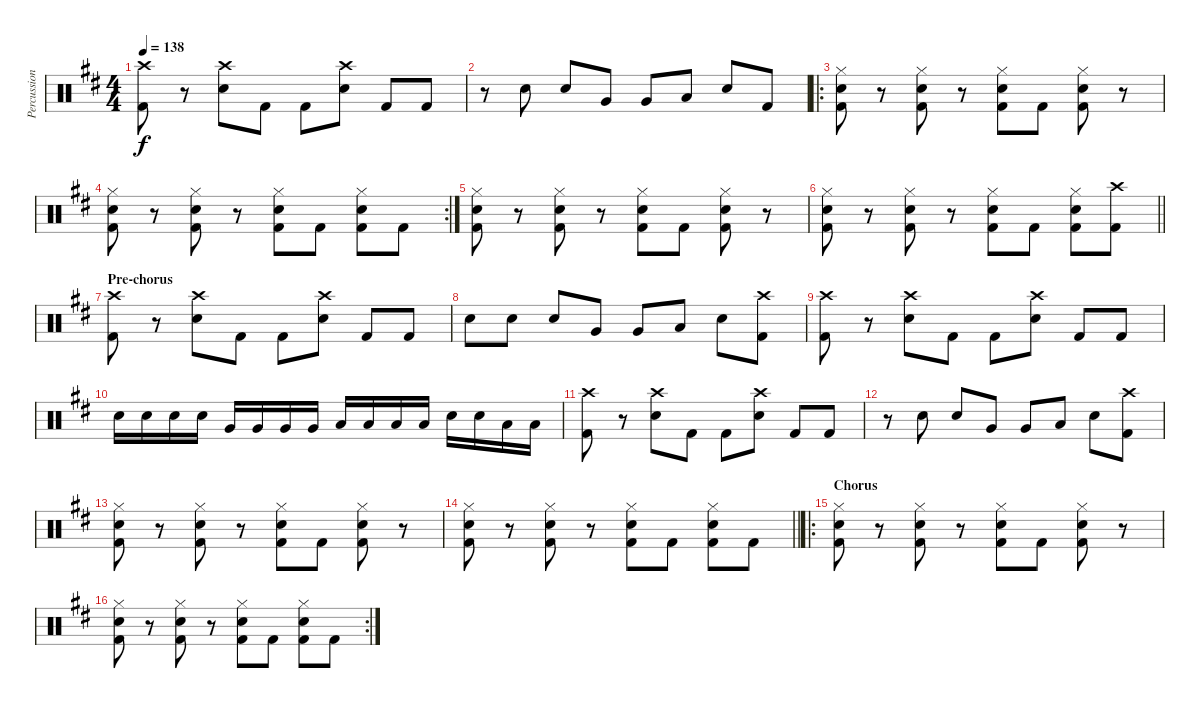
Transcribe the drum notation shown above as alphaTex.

\track ("Percussion" "Percussion") {instrument percussion}
\staff {score}
\articulation defaults
\ts (4 4)
\tempo 138
\clef neutral
\ks d
("Crash high (hit)" "Kick (hit) 2").8{dy f} r.8 ("Crash high (hit)" "Snare (hit) 2").8 "Kick (hit) 2".8 "Kick (hit) 2".8 ("Crash high (hit)" "Snare (hit) 2").8 "Kick (hit) 2".8 "Kick (hit) 2".8 |
r.8 "Snare (hit) 2".8 "Snare (hit) 2".8 "Very Low Tom (hit)".8 "Very Low Tom (hit)".8 "Low Floor Tom (hit)".8 "Snare (hit) 2".8 "Kick (hit) 2".8 |
\ro
("Hi-Hat (closed)" "Snare (hit) 2" "Kick (hit) 2").8 r.8 ("Hi-Hat (closed)" "Snare (hit) 2" "Kick (hit) 2").8 r.8 ("Hi-Hat (closed)" "Snare (hit) 2" "Kick (hit) 2").8 "Kick (hit) 2".8 ("Hi-Hat (closed)" "Snare (hit) 2" "Kick (hit) 2").8 r.8 |
\rc 2
("Hi-Hat (closed)" "Snare (hit) 2" "Kick (hit) 2").8 r.8 ("Hi-Hat (closed)" "Snare (hit) 2" "Kick (hit) 2").8 r.8 ("Hi-Hat (closed)" "Snare (hit) 2" "Kick (hit) 2").8 "Kick (hit) 2".8 ("Hi-Hat (closed)" "Snare (hit) 2" "Kick (hit) 2").8 "Kick (hit) 2".8 |
("Hi-Hat (closed)" "Snare (hit) 2" "Kick (hit) 2").8 r.8 ("Hi-Hat (closed)" "Snare (hit) 2" "Kick (hit) 2").8 r.8 ("Hi-Hat (closed)" "Snare (hit) 2" "Kick (hit) 2").8 "Kick (hit) 2".8 ("Hi-Hat (closed)" "Snare (hit) 2" "Kick (hit) 2").8 r.8 |
\barLineRight lightlight
("Hi-Hat (closed)" "Snare (hit) 2" "Kick (hit) 2").8 r.8 ("Hi-Hat (closed)" "Snare (hit) 2" "Kick (hit) 2").8 r.8 ("Hi-Hat (closed)" "Snare (hit) 2" "Kick (hit) 2").8 "Kick (hit) 2".8 ("Hi-Hat (closed)" "Snare (hit) 2" "Kick (hit) 2").8 ("Crash high (hit)" "Kick (hit) 2").8 |
\section ("" "Pre-chorus")
("Crash high (hit)" "Kick (hit) 2").8 r.8 ("Crash high (hit)" "Snare (hit) 2").8 "Kick (hit) 2".8 "Kick (hit) 2".8 ("Crash high (hit)" "Snare (hit) 2").8 "Kick (hit) 2".8 "Kick (hit) 2".8 |
"Snare (hit) 2".8 "Snare (hit) 2".8 "Snare (hit) 2".8 "Very Low Tom (hit)".8 "Very Low Tom (hit)".8 "Low Floor Tom (hit)".8 "Snare (hit) 2".8 ("Crash high (hit)" "Kick (hit) 2").8 |
("Crash high (hit)" "Kick (hit) 2").8 r.8 ("Crash high (hit)" "Snare (hit) 2").8 "Kick (hit) 2".8 "Kick (hit) 2".8 ("Crash high (hit)" "Snare (hit) 2").8 "Kick (hit) 2".8 "Kick (hit) 2".8 |
"Snare (hit) 2".16 "Snare (hit) 2".16 "Snare (hit) 2".16 "Snare (hit) 2".16 "Very Low Tom (hit)".16 "Very Low Tom (hit)".16 "Very Low Tom (hit)".16 "Very Low Tom (hit)".16 "Low Floor Tom (hit)".16 "Low Floor Tom (hit)".16 "Low Floor Tom (hit)".16 "Low Floor Tom (hit)".16 "Snare (hit) 2".16 "Snare (hit) 2".16 "Low Floor Tom (hit)".16 "Low Floor Tom (hit)".16 |
("Crash high (hit)" "Kick (hit) 2").8 r.8 ("Crash high (hit)" "Snare (hit) 2").8 "Kick (hit) 2".8 "Kick (hit) 2".8 ("Crash high (hit)" "Snare (hit) 2").8 "Kick (hit) 2".8 "Kick (hit) 2".8 |
r.8 "Snare (hit) 2".8 "Snare (hit) 2".8 "Very Low Tom (hit)".8 "Very Low Tom (hit)".8 "Low Floor Tom (hit)".8 "Snare (hit) 2".8 ("Crash high (hit)" "Kick (hit) 2").8 |
("Hi-Hat (closed)" "Snare (hit) 2" "Kick (hit) 2").8 r.8 ("Hi-Hat (closed)" "Snare (hit) 2" "Kick (hit) 2").8 r.8 ("Hi-Hat (closed)" "Snare (hit) 2" "Kick (hit) 2").8 "Kick (hit) 2".8 ("Hi-Hat (closed)" "Snare (hit) 2" "Kick (hit) 2").8 r.8 |
\barLineRight lightlight
("Hi-Hat (closed)" "Snare (hit) 2" "Kick (hit) 2").8 r.8 ("Hi-Hat (closed)" "Snare (hit) 2" "Kick (hit) 2").8 r.8 ("Hi-Hat (closed)" "Snare (hit) 2" "Kick (hit) 2").8 "Kick (hit) 2".8 ("Hi-Hat (closed)" "Snare (hit) 2" "Kick (hit) 2").8 "Kick (hit) 2".8 |
\ro
\section ("" "Chorus")
("Hi-Hat (closed)" "Snare (hit) 2" "Kick (hit) 2").8 r.8 ("Hi-Hat (closed)" "Snare (hit) 2" "Kick (hit) 2").8 r.8 ("Hi-Hat (closed)" "Snare (hit) 2" "Kick (hit) 2").8 "Kick (hit) 2".8 ("Hi-Hat (closed)" "Snare (hit) 2" "Kick (hit) 2").8 r.8 |
\rc 2
("Hi-Hat (closed)" "Snare (hit) 2" "Kick (hit) 2").8 r.8 ("Hi-Hat (closed)" "Snare (hit) 2" "Kick (hit) 2").8 r.8 ("Hi-Hat (closed)" "Snare (hit) 2" "Kick (hit) 2").8 "Kick (hit) 2".8 ("Hi-Hat (closed)" "Snare (hit) 2" "Kick (hit) 2").8 "Kick (hit) 2".8
